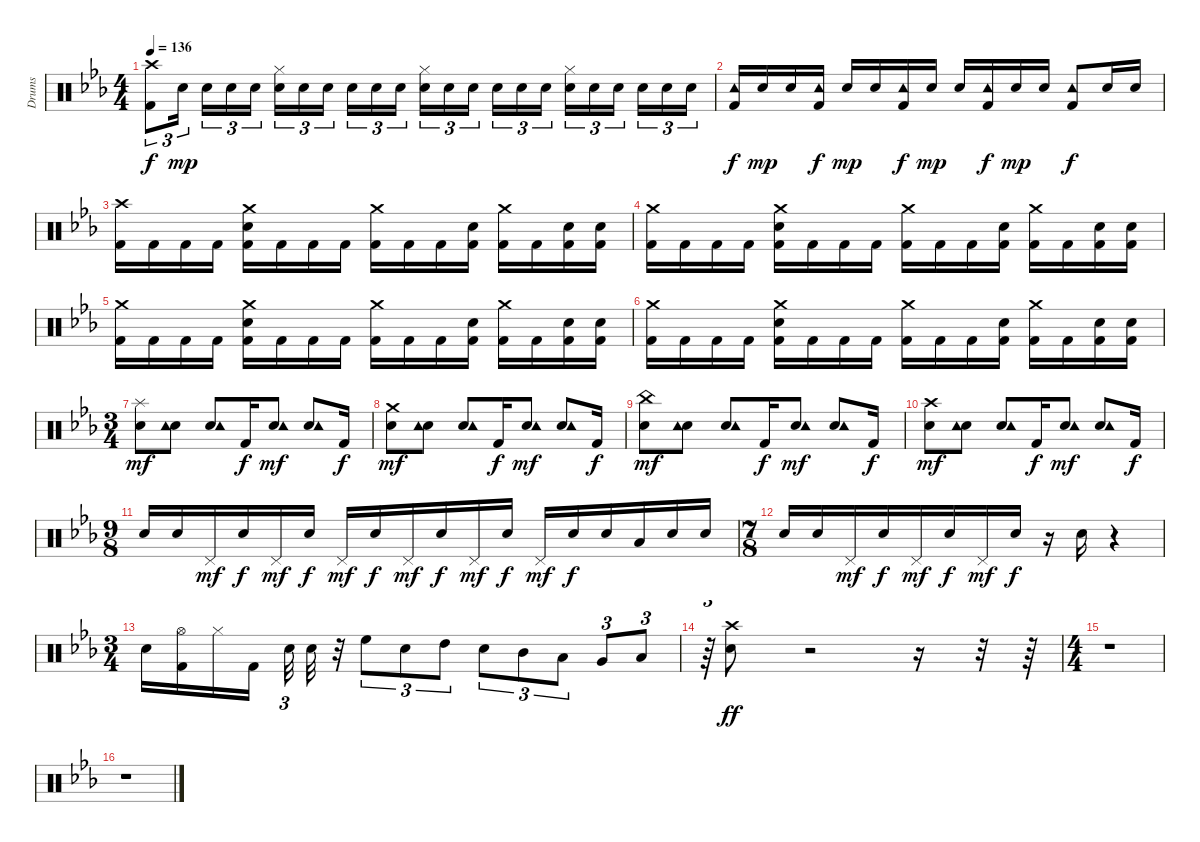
\track ("Drums" "Drums") {instrument percussion}
\staff {score}
\articulation defaults
\ts (4 4)
\tempo 136
\clef neutral
\ks cminor
("Kick (hit) 2" "Crash high (hit)").8{tu (3 2) dy f} "Electric Snare (hit)".16{tu (3 2) dy mp beam splitsecondary} "Electric Snare (hit)".16{tu (3 2)} "Electric Snare (hit)".16{tu (3 2)} "Electric Snare (hit)".16{tu (3 2)} ("Hi-Hat (closed)" "Electric Snare (hit)").16{tu (3 2)} "Electric Snare (hit)".16{tu (3 2)} "Electric Snare (hit)".16{tu (3 2) beam splitsecondary} "Electric Snare (hit)".16{tu (3 2)} "Electric Snare (hit)".16{tu (3 2)} "Electric Snare (hit)".16{tu (3 2)} ("Hi-Hat (closed)" "Electric Snare (hit)").16{tu (3 2)} "Electric Snare (hit)".16{tu (3 2)} "Electric Snare (hit)".16{tu (3 2) beam splitsecondary} "Electric Snare (hit)".16{tu (3 2)} "Electric Snare (hit)".16{tu (3 2)} "Electric Snare (hit)".16{tu (3 2)} ("Hi-Hat (closed)" "Electric Snare (hit)").16{tu (3 2)} "Electric Snare (hit)".16{tu (3 2)} "Electric Snare (hit)".16{tu (3 2) beam splitsecondary} "Electric Snare (hit)".16{tu (3 2)} "Electric Snare (hit)".16{tu (3 2)} "Electric Snare (hit)".16{tu (3 2)} |
("Tambourine (hit)" "Kick (hit) 2").16{dy f} "Electric Snare (hit)".16{dy mp} "Electric Snare (hit)".16 ("Tambourine (hit)" "Kick (hit) 2").16{dy f} "Electric Snare (hit)".16{dy mp} "Electric Snare (hit)".16 ("Tambourine (hit)" "Kick (hit) 2").16{dy f} "Electric Snare (hit)".16{dy mp} "Electric Snare (hit)".16 ("Tambourine (hit)" "Kick (hit) 2").16{dy f} "Electric Snare (hit)".16{dy mp} "Electric Snare (hit)".16 ("Kick (hit) 2" "Tambourine (hit)").8{dy f} "Electric Snare (hit)".16 "Electric Snare (hit)".16 |
("Kick (hit) 2" "Crash high (hit)").16 "Kick (hit) 2".16 "Kick (hit) 2".16 "Kick (hit) 2".16 ("Kick (hit) 2" "Electric Snare (hit)" "Crash medium (hit)").16 "Kick (hit) 2".16 "Kick (hit) 2".16 "Kick (hit) 2".16 ("Kick (hit) 2" "Crash medium (hit)").16 "Kick (hit) 2".16 "Kick (hit) 2".16 ("Kick (hit) 2" "Electric Snare (hit)").16 ("Kick (hit) 2" "Crash medium (hit)").16 "Kick (hit) 2".16 ("Kick (hit) 2" "Electric Snare (hit)").16 ("Kick (hit) 2" "Electric Snare (hit)").16 |
("Kick (hit) 2" "Crash medium (hit)").16 "Kick (hit) 2".16 "Kick (hit) 2".16 "Kick (hit) 2".16 ("Kick (hit) 2" "Electric Snare (hit)" "Crash medium (hit)").16 "Kick (hit) 2".16 "Kick (hit) 2".16 "Kick (hit) 2".16 ("Kick (hit) 2" "Crash medium (hit)").16 "Kick (hit) 2".16 "Kick (hit) 2".16 ("Kick (hit) 2" "Electric Snare (hit)").16 ("Kick (hit) 2" "Crash medium (hit)").16 "Kick (hit) 2".16 ("Kick (hit) 2" "Electric Snare (hit)").16 ("Kick (hit) 2" "Electric Snare (hit)").16 |
("Kick (hit) 2" "Crash medium (hit)").16 "Kick (hit) 2".16 "Kick (hit) 2".16 "Kick (hit) 2".16 ("Kick (hit) 2" "Electric Snare (hit)" "Crash medium (hit)").16 "Kick (hit) 2".16 "Kick (hit) 2".16 "Kick (hit) 2".16 ("Kick (hit) 2" "Crash medium (hit)").16 "Kick (hit) 2".16 "Kick (hit) 2".16 ("Kick (hit) 2" "Electric Snare (hit)").16 ("Kick (hit) 2" "Crash medium (hit)").16 "Kick (hit) 2".16 ("Kick (hit) 2" "Electric Snare (hit)").16 ("Kick (hit) 2" "Electric Snare (hit)").16 |
("Kick (hit) 2" "Crash medium (hit)").16 "Kick (hit) 2".16 "Kick (hit) 2".16 "Kick (hit) 2".16 ("Kick (hit) 2" "Electric Snare (hit)" "Crash medium (hit)").16 "Kick (hit) 2".16 "Kick (hit) 2".16 "Kick (hit) 2".16 ("Kick (hit) 2" "Crash medium (hit)").16 "Kick (hit) 2".16 "Kick (hit) 2".16 ("Kick (hit) 2" "Electric Snare (hit)").16 ("Kick (hit) 2" "Crash medium (hit)").16 "Kick (hit) 2".16 ("Kick (hit) 2" "Electric Snare (hit)").16 ("Kick (hit) 2" "Electric Snare (hit)").16 |
\ts (3 4)
("Electric Snare (hit)" "Splash (hit)").8{dy mf} ("Electric Snare (hit)" "Tambourine (hit)").8 ("Electric Snare (hit)" "Tambourine (hit)").8 "Kick (hit) 2".16{dy f} ("Electric Snare (hit)" "Tambourine (hit)").8{dy mf} ("Electric Snare (hit)" "Tambourine (hit)").8 "Kick (hit) 2".16{dy f} |
("Electric Snare (hit)" "Crash medium (hit)").8{dy mf} ("Electric Snare (hit)" "Tambourine (hit)").8 ("Electric Snare (hit)" "Tambourine (hit)").8 "Kick (hit) 2".16{dy f} ("Electric Snare (hit)" "Tambourine (hit)").8{dy mf} ("Electric Snare (hit)" "Tambourine (hit)").8 "Kick (hit) 2".16{dy f} |
("Electric Snare (hit)" "China (hit)").8{dy mf} ("Electric Snare (hit)" "Tambourine (hit)").8 ("Electric Snare (hit)" "Tambourine (hit)").8 "Kick (hit) 2".16{dy f} ("Electric Snare (hit)" "Tambourine (hit)").8{dy mf} ("Electric Snare (hit)" "Tambourine (hit)").8 "Kick (hit) 2".16{dy f} |
("Electric Snare (hit)" "Crash high (hit)").8{dy mf} ("Electric Snare (hit)" "Tambourine (hit)").8 ("Electric Snare (hit)" "Tambourine (hit)").8 "Kick (hit) 2".16{dy f} ("Electric Snare (hit)" "Tambourine (hit)").8{dy mf} ("Electric Snare (hit)" "Tambourine (hit)").8 "Kick (hit) 2".16{dy f} |
\ts (9 8)
"Electric Snare (hit)".16 "Electric Snare (hit)".16 "Pedal Hi-Hat (hit)".16{dy mf} "Electric Snare (hit)".16{dy f} "Pedal Hi-Hat (hit)".16{dy mf} "Electric Snare (hit)".16{dy f} "Pedal Hi-Hat (hit)".16{dy mf} "Electric Snare (hit)".16{dy f} "Pedal Hi-Hat (hit)".16{dy mf} "Electric Snare (hit)".16{dy f} "Pedal Hi-Hat (hit)".16{dy mf} "Electric Snare (hit)".16{dy f} "Pedal Hi-Hat (hit)".16{dy mf} "Electric Snare (hit)".16{dy f} "Electric Snare (hit)".16 "Low Tom (hit)".16 "Electric Snare (hit)".16 "Electric Snare (hit)".16 |
\ts (7 8)
"Electric Snare (hit)".16 "Electric Snare (hit)".16 "Pedal Hi-Hat (hit)".16{dy mf} "Electric Snare (hit)".16{dy f} "Pedal Hi-Hat (hit)".16{dy mf} "Electric Snare (hit)".16{dy f} "Pedal Hi-Hat (hit)".16{dy mf} "Electric Snare (hit)".16{dy f} r.16 "Electric Snare (hit)".16 r.4 |
\ts (3 4)
"Electric Snare (hit)".16 ("Kick (hit) 2" "Hi-Hat (open)").16 "Hi-Hat (closed)".16 "Kick (hit) 2".16 "Electric Snare (hit)".32{tu (3 2)} "Electric Snare (hit)".32 r.32 "High Floor Tom (hit)".8{tu (3 2)} "Electric Snare (hit)".8{tu (3 2)} "High Tom (hit)".8{tu (3 2)} "Electric Snare (hit)".8{tu (3 2)} "Mid Tom (hit)".8{tu (3 2)} "Low Tom (hit)".8{tu (3 2)} "Very Low Tom (hit)".8{tu (3 2)} "Low Floor Tom (hit)".8{tu (3 2)} |
r.64{tu (3 2)} ("Electric Snare (hit)" "Crash high (hit)").8{dy ff} r.2 r.16 r.32 r.64 |
\ts (4 4)
r.1 |
r.1
